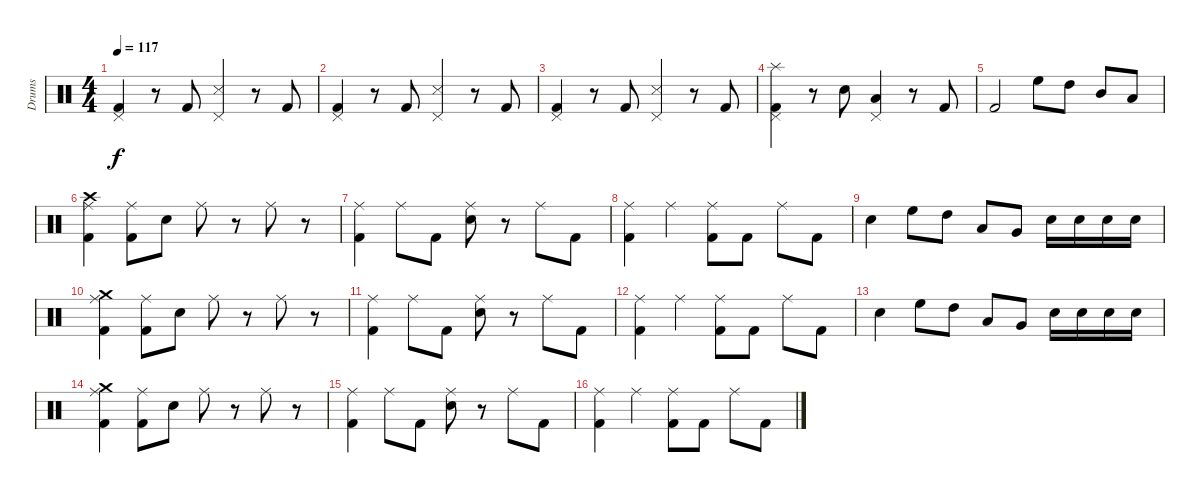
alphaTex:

\track ("Drums" "Drums") {instrument percussion}
\staff {score}
\articulation defaults
\ts (4 4)
\tempo 117
\clef neutral
\ks c
("Pedal Hi-Hat (hit)" "Kick (hit) 2").4{dy f} r.8 "Kick (hit) 2".8 ("Pedal Hi-Hat (hit)" "Snare (side stick) 3").4 r.8 "Kick (hit) 2".8 |
("Pedal Hi-Hat (hit)" "Kick (hit) 2").4 r.8 "Kick (hit) 2".8 ("Pedal Hi-Hat (hit)" "Snare (side stick) 3").4 r.8 "Kick (hit) 2".8 |
("Pedal Hi-Hat (hit)" "Kick (hit) 2").4 r.8 "Kick (hit) 2".8 ("Pedal Hi-Hat (hit)" "Snare (side stick) 3").4 r.8 "Kick (hit) 2".8 |
("Pedal Hi-Hat (hit)" "Splash (hit)" "Kick (hit) 2").4 r.8 "Snare (hit) 2".8 ("Pedal Hi-Hat (hit)" "Low Tom (hit)").4 r.8 "Kick (hit) 2".8 |
"Kick (hit) 2".2 "High Floor Tom (hit)".8 "High Tom (hit)".8 "Mid Tom (hit)".8 "Low Tom (hit)".8 |
("Ride (middle)" "Kick (hit) 2" "Crash high (hit)").4 ("Ride (middle)" "Kick (hit) 2").8 "Snare (hit) 2".8 "Ride (middle)".8 r.8 "Ride (middle)".8 r.8 |
("Ride (middle)" "Kick (hit) 2").4 "Ride (middle)".8 "Kick (hit) 2".8 ("Ride (middle)" "Snare (hit) 2").8 r.8 "Ride (middle)".8 "Kick (hit) 2".8 |
("Ride (middle)" "Kick (hit) 2").4 "Ride (middle)".4 ("Ride (middle)" "Kick (hit) 2").8 "Kick (hit) 2".8 "Ride (middle)".8 "Kick (hit) 2".8 |
"Snare (hit) 2".4 "High Floor Tom (hit)".8 "High Tom (hit)".8 "Low Tom (hit)".8 "Very Low Tom (hit)".8 "Snare (hit) 2".16 "Snare (hit) 2".16 "Snare (hit) 2".16 "Snare (hit) 2".16 |
("Ride (middle)" "Kick (hit) 2" "Crash medium (hit)").4 ("Ride (middle)" "Kick (hit) 2").8 "Snare (hit) 2".8 "Ride (middle)".8 r.8 "Ride (middle)".8 r.8 |
("Ride (middle)" "Kick (hit) 2").4 "Ride (middle)".8 "Kick (hit) 2".8 ("Ride (middle)" "Snare (hit) 2").8 r.8 "Ride (middle)".8 "Kick (hit) 2".8 |
("Ride (middle)" "Kick (hit) 2").4 "Ride (middle)".4 ("Ride (middle)" "Kick (hit) 2").8 "Kick (hit) 2".8 "Ride (middle)".8 "Kick (hit) 2".8 |
"Snare (hit) 2".4 "High Floor Tom (hit)".8 "High Tom (hit)".8 "Low Tom (hit)".8 "Very Low Tom (hit)".8 "Snare (hit) 2".16 "Snare (hit) 2".16 "Snare (hit) 2".16 "Snare (hit) 2".16 |
("Ride (middle)" "Kick (hit) 2" "Crash medium (hit)").4 ("Ride (middle)" "Kick (hit) 2").8 "Snare (hit) 2".8 "Ride (middle)".8 r.8 "Ride (middle)".8 r.8 |
("Ride (middle)" "Kick (hit) 2").4 "Ride (middle)".8 "Kick (hit) 2".8 ("Ride (middle)" "Snare (hit) 2").8 r.8 "Ride (middle)".8 "Kick (hit) 2".8 |
("Ride (middle)" "Kick (hit) 2").4 "Ride (middle)".4 ("Ride (middle)" "Kick (hit) 2").8 "Kick (hit) 2".8 "Ride (middle)".8 "Kick (hit) 2".8
